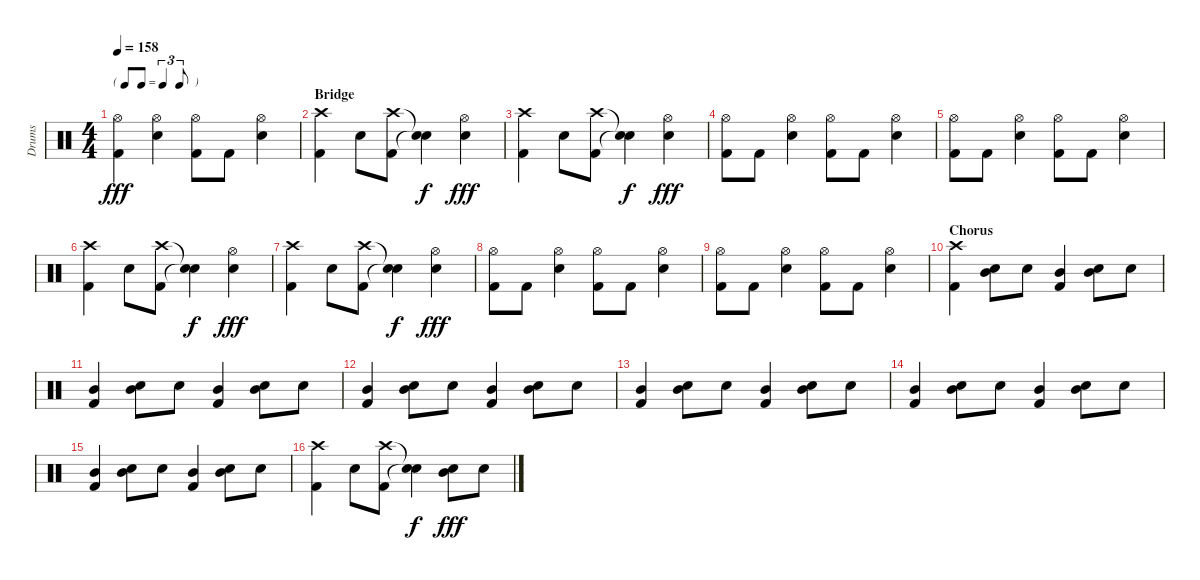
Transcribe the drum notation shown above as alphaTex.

\track ("Drums" "Drums") {instrument percussion}
\staff {score}
\articulation defaults
\ts (4 4)
\tf triplet8th
\tempo 158
\clef neutral
\ks c
("Hi-Hat (open)" "Kick (hit) 2").4{dy fff} ("Hi-Hat (open)" "Snare (hit) 2").4 ("Hi-Hat (open)" "Kick (hit) 2").8 "Kick (hit) 2".8 ("Hi-Hat (open)" "Snare (hit) 2").4 |
\section ("" "Bridge")
("Crash high (hit)" "Kick (hit) 2").4 "Snare (hit) 2".8 ("Crash high (hit)" "Kick (hit) 2").8 ("Snare (hit)"{t} "Snare (hit)"{t}).4{dy f} ("Hi-Hat (open)" "Snare (hit) 2").4{dy fff} |
("Crash high (hit)" "Kick (hit) 2").4 "Snare (hit) 2".8 ("Crash high (hit)" "Kick (hit) 2").8 ("Snare (hit)"{t} "Snare (hit)"{t}).4{dy f} ("Hi-Hat (open)" "Snare (hit) 2").4{dy fff} |
("Hi-Hat (open)" "Kick (hit) 2").8 "Kick (hit) 2".8 ("Hi-Hat (open)" "Snare (hit) 2").4 ("Hi-Hat (open)" "Kick (hit) 2").8 "Kick (hit) 2".8 ("Hi-Hat (open)" "Snare (hit) 2").4 |
("Hi-Hat (open)" "Kick (hit) 2").8 "Kick (hit) 2".8 ("Hi-Hat (open)" "Snare (hit) 2").4 ("Hi-Hat (open)" "Kick (hit) 2").8 "Kick (hit) 2".8 ("Hi-Hat (open)" "Snare (hit) 2").4 |
("Crash high (hit)" "Kick (hit) 2").4 "Snare (hit) 2".8 ("Crash high (hit)" "Kick (hit) 2").8 ("Snare (hit)"{t} "Snare (hit)"{t}).4{dy f} ("Hi-Hat (open)" "Snare (hit) 2").4{dy fff} |
("Crash high (hit)" "Kick (hit) 2").4 "Snare (hit) 2".8 ("Crash high (hit)" "Kick (hit) 2").8 ("Snare (hit)"{t} "Snare (hit)"{t}).4{dy f} ("Hi-Hat (open)" "Snare (hit) 2").4{dy fff} |
("Hi-Hat (open)" "Kick (hit) 2").8 "Kick (hit) 2".8 ("Hi-Hat (open)" "Snare (hit) 2").4 ("Hi-Hat (open)" "Kick (hit) 2").8 "Kick (hit) 2".8 ("Hi-Hat (open)" "Snare (hit) 2").4 |
("Hi-Hat (open)" "Kick (hit) 2").8 "Kick (hit) 2".8 ("Hi-Hat (open)" "Snare (hit) 2").4 ("Hi-Hat (open)" "Kick (hit) 2").8 "Kick (hit) 2".8 ("Hi-Hat (open)" "Snare (hit) 2").4 |
\section ("" "Chorus")
("Crash high (hit)" "Kick (hit) 2").4 ("Mid Tom (hit)" "Snare (hit) 2").8 "Snare (hit) 2".8 ("Mid Tom (hit)" "Kick (hit) 2").4 ("Mid Tom (hit)" "Snare (hit) 2").8 "Snare (hit) 2".8 |
("Mid Tom (hit)" "Kick (hit) 2").4 ("Mid Tom (hit)" "Snare (hit) 2").8 "Snare (hit) 2".8 ("Mid Tom (hit)" "Kick (hit) 2").4 ("Mid Tom (hit)" "Snare (hit) 2").8 "Snare (hit) 2".8 |
("Mid Tom (hit)" "Kick (hit) 2").4 ("Mid Tom (hit)" "Snare (hit) 2").8 "Snare (hit) 2".8 ("Mid Tom (hit)" "Kick (hit) 2").4 ("Mid Tom (hit)" "Snare (hit) 2").8 "Snare (hit) 2".8 |
("Mid Tom (hit)" "Kick (hit) 2").4 ("Mid Tom (hit)" "Snare (hit) 2").8 "Snare (hit) 2".8 ("Mid Tom (hit)" "Kick (hit) 2").4 ("Mid Tom (hit)" "Snare (hit) 2").8 "Snare (hit) 2".8 |
("Mid Tom (hit)" "Kick (hit) 2").4 ("Mid Tom (hit)" "Snare (hit) 2").8 "Snare (hit) 2".8 ("Mid Tom (hit)" "Kick (hit) 2").4 ("Mid Tom (hit)" "Snare (hit) 2").8 "Snare (hit) 2".8 |
("Mid Tom (hit)" "Kick (hit) 2").4 ("Mid Tom (hit)" "Snare (hit) 2").8 "Snare (hit) 2".8 ("Mid Tom (hit)" "Kick (hit) 2").4 ("Mid Tom (hit)" "Snare (hit) 2").8 "Snare (hit) 2".8 |
("Crash high (hit)" "Kick (hit) 2").4 "Snare (hit) 2".8 ("Crash high (hit)" "Kick (hit) 2").8 ("Snare (hit)"{t} "Snare (hit)"{t}).4{dy f} ("Mid Tom (hit)" "Snare (hit) 2").8{dy fff} "Snare (hit) 2".8
